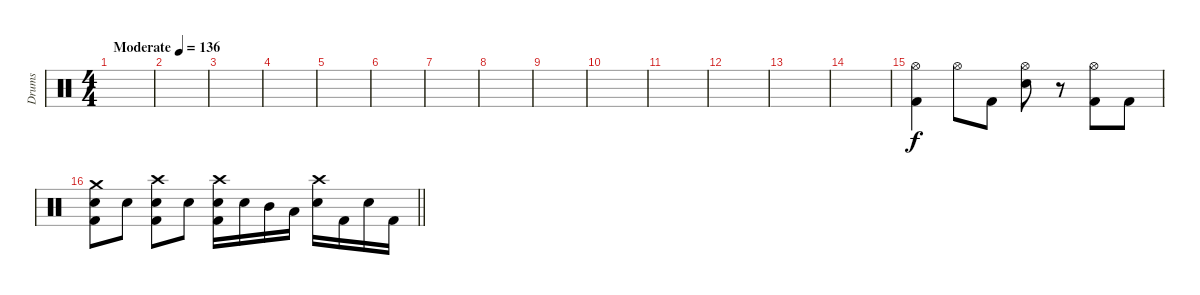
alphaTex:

\track ("Drums" "Drums") {instrument percussion}
\staff {score}
\articulation defaults
\ts (4 4)
\tempo (136 "Moderate")
\clef neutral
\ks c
|
|
|
|
|
|
|
|
|
|
|
|
|
|
("Hi-Hat (open)" "Kick (hit) 2").4 "Hi-Hat (open)".8 "Kick (hit) 2".8 ("Hi-Hat (open)" "Snare (hit) 2").8 r.8 ("Hi-Hat (open)" "Kick (hit) 2").8 "Kick (hit) 2".8 |
\barLineRight lightlight
("Crash medium (hit)" "Snare (hit) 2" "Kick (hit) 2").8 "Snare (hit) 2".8 ("Crash high (hit)" "Snare (hit) 2" "Kick (hit) 2").8 "Snare (hit) 2".8 ("Crash high (hit)" "Snare (hit) 2" "Kick (hit) 2").16 "Snare (hit) 2".16 "Mid Tom (hit)".16 "Low Tom (hit)".16 ("Crash high (hit)" "Snare (hit) 2").16 "Kick (hit) 2".16 "Snare (hit) 2".16 "Kick (hit) 2".16
